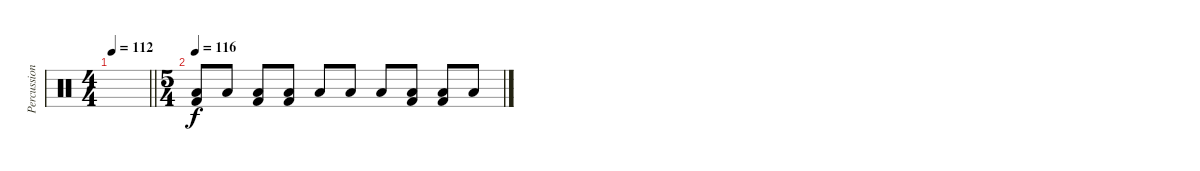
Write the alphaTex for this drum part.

\track ("Percussion" "Percussion") {instrument percussion}
\staff {score}
\articulation defaults
\ts (4 4)
\tempo 112
\clef neutral
\barLineRight lightlight
\ks c
|
\ts (5 4)
\tempo 116
("Low Floor Tom (hit)" "Kick (hit) 2").8 "Low Tom (hit)".8 ("Low Floor Tom (hit)" "Kick (hit) 2").8 ("Low Floor Tom (hit)" "Kick (hit) 2").8 "Low Tom (hit)".8 "Low Floor Tom (hit)".8 "Low Tom (hit)".8 ("Low Floor Tom (hit)" "Kick (hit) 2").8 ("Low Floor Tom (hit)" "Kick (hit) 2").8 "Low Tom (hit)".8
